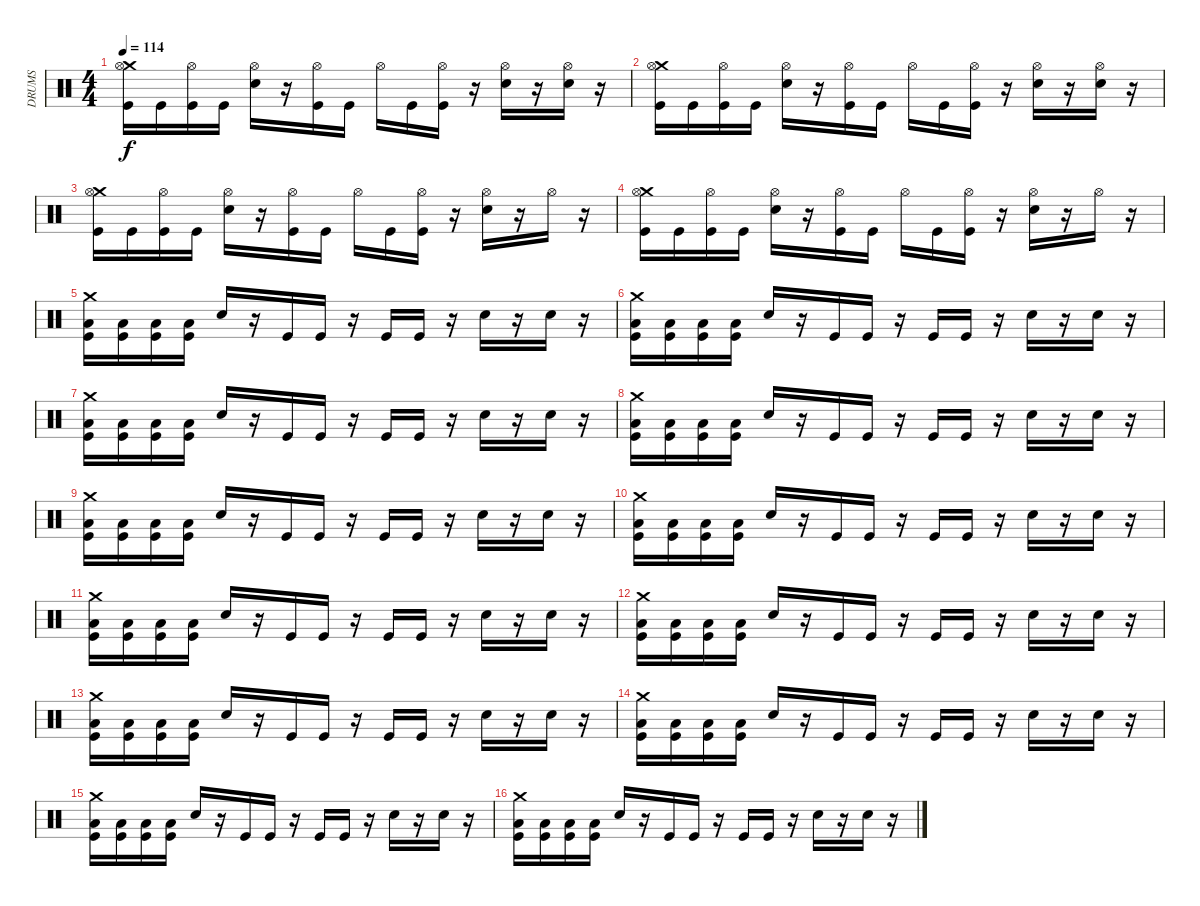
\track ("DRUMS" "DRUMS") {instrument percussion}
\staff {score}
\articulation defaults
\ts (4 4)
\tempo 114
\clef neutral
\ks c
("Crash medium (hit)" "Hi-Hat (open)" "Kick (hit)").16{dy f} "Kick (hit)".16 ("Hi-Hat (open)" "Kick (hit)").16 "Kick (hit)".16 ("Hi-Hat (open)" "Electric Snare (hit)").16 r.16 ("Hi-Hat (open)" "Kick (hit)").16 "Kick (hit)".16 "Hi-Hat (open)".16 "Kick (hit)".16 ("Hi-Hat (open)" "Kick (hit)").16 r.16 ("Hi-Hat (open)" "Electric Snare (hit)").16 r.16 ("Hi-Hat (open)" "Electric Snare (hit)").16 r.16 |
("Crash medium (hit)" "Hi-Hat (open)" "Kick (hit)").16 "Kick (hit)".16 ("Hi-Hat (open)" "Kick (hit)").16 "Kick (hit)".16 ("Hi-Hat (open)" "Electric Snare (hit)").16 r.16 ("Hi-Hat (open)" "Kick (hit)").16 "Kick (hit)".16 "Hi-Hat (open)".16 "Kick (hit)".16 ("Hi-Hat (open)" "Kick (hit)").16 r.16 ("Hi-Hat (open)" "Electric Snare (hit)").16 r.16 ("Hi-Hat (open)" "Electric Snare (hit)").16 r.16 |
("Crash medium (hit)" "Hi-Hat (open)" "Kick (hit)").16 "Kick (hit)".16 ("Hi-Hat (open)" "Kick (hit)").16 "Kick (hit)".16 ("Hi-Hat (open)" "Electric Snare (hit)").16 r.16 ("Hi-Hat (open)" "Kick (hit)").16 "Kick (hit)".16 "Hi-Hat (open)".16 "Kick (hit)".16 ("Hi-Hat (open)" "Kick (hit)").16 r.16 ("Hi-Hat (open)" "Electric Snare (hit)").16 r.16 "Hi-Hat (open)".16 r.16 |
("Crash medium (hit)" "Hi-Hat (open)" "Kick (hit)").16 "Kick (hit)".16 ("Hi-Hat (open)" "Kick (hit)").16 "Kick (hit)".16 ("Hi-Hat (open)" "Electric Snare (hit)").16 r.16 ("Hi-Hat (open)" "Kick (hit)").16 "Kick (hit)".16 "Hi-Hat (open)".16 "Kick (hit)".16 ("Hi-Hat (open)" "Kick (hit)").16 r.16 ("Hi-Hat (open)" "Electric Snare (hit)").16 r.16 "Hi-Hat (open)".16 r.16 |
("Crash medium (hit)" "Low Floor Tom (hit)" "Kick (hit)").16 ("Low Floor Tom (hit)" "Kick (hit)").16 ("Low Floor Tom (hit)" "Kick (hit)").16 ("Low Floor Tom (hit)" "Kick (hit)").16 "Electric Snare (hit)".16 r.16 "Kick (hit)".16 "Kick (hit)".16 r.16 "Kick (hit)".16 "Kick (hit)".16 r.16 "Electric Snare (hit)".16 r.16 "Electric Snare (hit)".16 r.16 |
("Crash medium (hit)" "Low Floor Tom (hit)" "Kick (hit)").16 ("Low Floor Tom (hit)" "Kick (hit)").16 ("Low Floor Tom (hit)" "Kick (hit)").16 ("Low Floor Tom (hit)" "Kick (hit)").16 "Electric Snare (hit)".16 r.16 "Kick (hit)".16 "Kick (hit)".16 r.16 "Kick (hit)".16 "Kick (hit)".16 r.16 "Electric Snare (hit)".16 r.16 "Electric Snare (hit)".16 r.16 |
("Crash medium (hit)" "Low Floor Tom (hit)" "Kick (hit)").16 ("Low Floor Tom (hit)" "Kick (hit)").16 ("Low Floor Tom (hit)" "Kick (hit)").16 ("Low Floor Tom (hit)" "Kick (hit)").16 "Electric Snare (hit)".16 r.16 "Kick (hit)".16 "Kick (hit)".16 r.16 "Kick (hit)".16 "Kick (hit)".16 r.16 "Electric Snare (hit)".16 r.16 "Electric Snare (hit)".16 r.16 |
("Crash medium (hit)" "Low Floor Tom (hit)" "Kick (hit)").16 ("Low Floor Tom (hit)" "Kick (hit)").16 ("Low Floor Tom (hit)" "Kick (hit)").16 ("Low Floor Tom (hit)" "Kick (hit)").16 "Electric Snare (hit)".16 r.16 "Kick (hit)".16 "Kick (hit)".16 r.16 "Kick (hit)".16 "Kick (hit)".16 r.16 "Electric Snare (hit)".16 r.16 "Electric Snare (hit)".16 r.16 |
("Crash medium (hit)" "Low Floor Tom (hit)" "Kick (hit)").16 ("Low Floor Tom (hit)" "Kick (hit)").16 ("Low Floor Tom (hit)" "Kick (hit)").16 ("Low Floor Tom (hit)" "Kick (hit)").16 "Electric Snare (hit)".16 r.16 "Kick (hit)".16 "Kick (hit)".16 r.16 "Kick (hit)".16 "Kick (hit)".16 r.16 "Electric Snare (hit)".16 r.16 "Electric Snare (hit)".16 r.16 |
("Crash medium (hit)" "Low Floor Tom (hit)" "Kick (hit)").16 ("Low Floor Tom (hit)" "Kick (hit)").16 ("Low Floor Tom (hit)" "Kick (hit)").16 ("Low Floor Tom (hit)" "Kick (hit)").16 "Electric Snare (hit)".16 r.16 "Kick (hit)".16 "Kick (hit)".16 r.16 "Kick (hit)".16 "Kick (hit)".16 r.16 "Electric Snare (hit)".16 r.16 "Electric Snare (hit)".16 r.16 |
("Crash medium (hit)" "Low Floor Tom (hit)" "Kick (hit)").16 ("Low Floor Tom (hit)" "Kick (hit)").16 ("Low Floor Tom (hit)" "Kick (hit)").16 ("Low Floor Tom (hit)" "Kick (hit)").16 "Electric Snare (hit)".16 r.16 "Kick (hit)".16 "Kick (hit)".16 r.16 "Kick (hit)".16 "Kick (hit)".16 r.16 "Electric Snare (hit)".16 r.16 "Electric Snare (hit)".16 r.16 |
("Crash medium (hit)" "Low Floor Tom (hit)" "Kick (hit)").16 ("Low Floor Tom (hit)" "Kick (hit)").16 ("Low Floor Tom (hit)" "Kick (hit)").16 ("Low Floor Tom (hit)" "Kick (hit)").16 "Electric Snare (hit)".16 r.16 "Kick (hit)".16 "Kick (hit)".16 r.16 "Kick (hit)".16 "Kick (hit)".16 r.16 "Electric Snare (hit)".16 r.16 "Electric Snare (hit)".16 r.16 |
("Crash medium (hit)" "Low Floor Tom (hit)" "Kick (hit)").16 ("Low Floor Tom (hit)" "Kick (hit)").16 ("Low Floor Tom (hit)" "Kick (hit)").16 ("Low Floor Tom (hit)" "Kick (hit)").16 "Electric Snare (hit)".16 r.16 "Kick (hit)".16 "Kick (hit)".16 r.16 "Kick (hit)".16 "Kick (hit)".16 r.16 "Electric Snare (hit)".16 r.16 "Electric Snare (hit)".16 r.16 |
("Crash medium (hit)" "Low Floor Tom (hit)" "Kick (hit)").16 ("Low Floor Tom (hit)" "Kick (hit)").16 ("Low Floor Tom (hit)" "Kick (hit)").16 ("Low Floor Tom (hit)" "Kick (hit)").16 "Electric Snare (hit)".16 r.16 "Kick (hit)".16 "Kick (hit)".16 r.16 "Kick (hit)".16 "Kick (hit)".16 r.16 "Electric Snare (hit)".16 r.16 "Electric Snare (hit)".16 r.16 |
("Crash medium (hit)" "Low Floor Tom (hit)" "Kick (hit)").16 ("Low Floor Tom (hit)" "Kick (hit)").16 ("Low Floor Tom (hit)" "Kick (hit)").16 ("Low Floor Tom (hit)" "Kick (hit)").16 "Electric Snare (hit)".16 r.16 "Kick (hit)".16 "Kick (hit)".16 r.16 "Kick (hit)".16 "Kick (hit)".16 r.16 "Electric Snare (hit)".16 r.16 "Electric Snare (hit)".16 r.16 |
("Crash medium (hit)" "Low Floor Tom (hit)" "Kick (hit)").16 ("Low Floor Tom (hit)" "Kick (hit)").16 ("Low Floor Tom (hit)" "Kick (hit)").16 ("Low Floor Tom (hit)" "Kick (hit)").16 "Electric Snare (hit)".16 r.16 "Kick (hit)".16 "Kick (hit)".16 r.16 "Kick (hit)".16 "Kick (hit)".16 r.16 "Electric Snare (hit)".16 r.16 "Electric Snare (hit)".16 r.16
